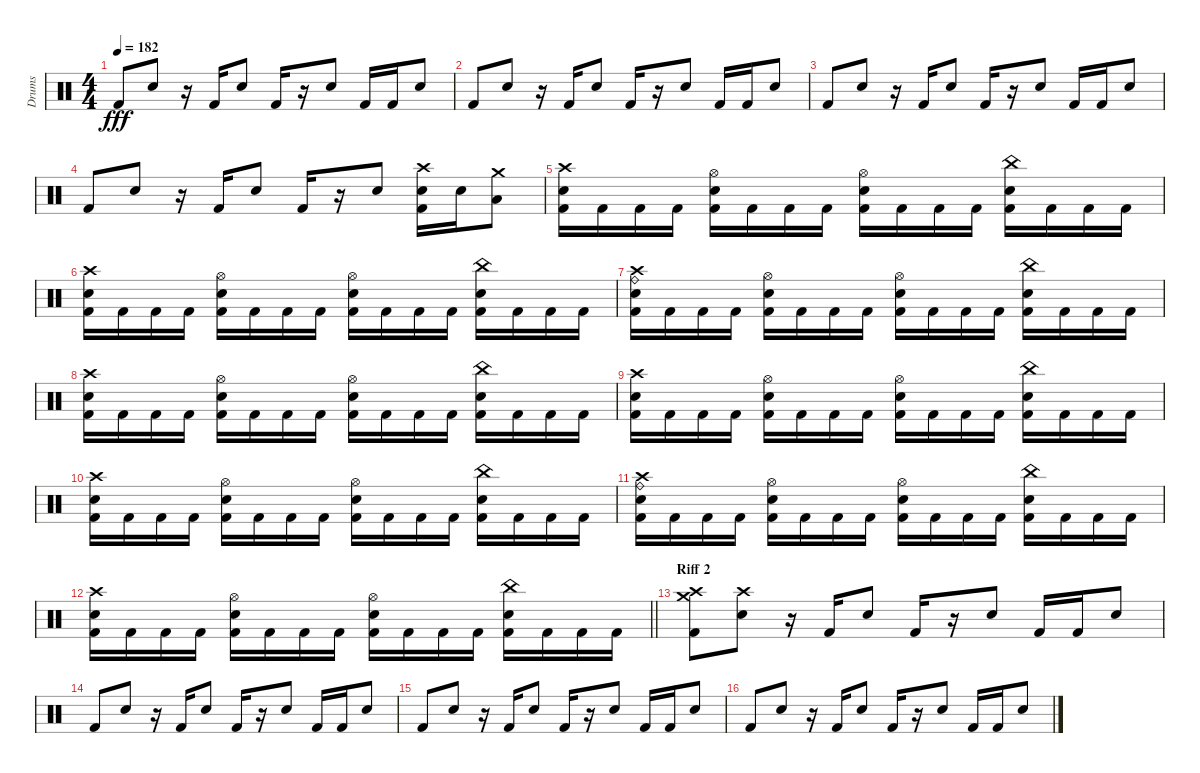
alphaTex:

\track ("Drums" "Drums") {instrument percussion}
\staff {score}
\articulation defaults
\ts (4 4)
\tempo 182
\clef neutral
\ks c "Kick (hit) 2".8{dy fff} "Snare (hit) 2".8
r.16 "Kick (hit) 2".16 "Snare (hit) 2".8 "Kick (hit) 2".16 r.16 "Snare (hit) 2".8 "Kick (hit) 2".16 "Kick (hit) 2".16 "Snare (hit) 2".8 |
"Kick (hit) 2".8 "Snare (hit) 2".8 r.16 "Kick (hit) 2".16 "Snare (hit) 2".8 "Kick (hit) 2".16 r.16 "Snare (hit) 2".8 "Kick (hit) 2".16 "Kick (hit) 2".16 "Snare (hit) 2".8 |
"Kick (hit) 2".8 "Snare (hit) 2".8 r.16 "Kick (hit) 2".16 "Snare (hit) 2".8 "Kick (hit) 2".16 r.16 "Snare (hit) 2".8 "Kick (hit) 2".16 "Kick (hit) 2".16 "Snare (hit) 2".8 |
"Kick (hit) 2".8 "Snare (hit) 2".8 r.16 "Kick (hit) 2".16 "Snare (hit) 2".8 "Kick (hit) 2".16 r.16 "Snare (hit) 2".8 ("Crash high (hit)" "Kick (hit) 2" "Snare (hit) 2").16 "Snare (hit) 2".16 ("Crash medium (hit)" "Low Tom (hit)").8 |
("Crash high (hit)" "Kick (hit) 2" "Snare (hit) 2").16 "Kick (hit) 2".16 "Kick (hit) 2".16 "Kick (hit) 2".16 ("Hi-Hat (open)" "Kick (hit) 2" "Snare (hit) 2").16 "Kick (hit) 2".16 "Kick (hit) 2".16 "Kick (hit) 2".16 ("Hi-Hat (open)" "Kick (hit) 2" "Snare (hit) 2").16 "Kick (hit) 2".16 "Kick (hit) 2".16 "Kick (hit) 2".16 ("China (hit)" "Kick (hit) 2" "Snare (hit) 2").16 "Kick (hit) 2".16 "Kick (hit) 2".16 "Kick (hit) 2".16 |
("Crash high (hit)" "Kick (hit) 2" "Snare (hit) 2").16 "Kick (hit) 2".16 "Kick (hit) 2".16 "Kick (hit) 2".16 ("Hi-Hat (open)" "Kick (hit) 2" "Snare (hit) 2").16 "Kick (hit) 2".16 "Kick (hit) 2".16 "Kick (hit) 2".16 ("Hi-Hat (open)" "Kick (hit) 2" "Snare (hit) 2").16 "Kick (hit) 2".16 "Kick (hit) 2".16 "Kick (hit) 2".16 ("China (hit)" "Kick (hit) 2" "Snare (hit) 2").16 "Kick (hit) 2".16 "Kick (hit) 2".16 "Kick (hit) 2".16 |
("Crash high (hit)" "Kick (hit) 2" "Snare (hit) 2" "Ride (bell)").16 "Kick (hit) 2".16 "Kick (hit) 2".16 "Kick (hit) 2".16 ("Hi-Hat (open)" "Kick (hit) 2" "Snare (hit) 2").16 "Kick (hit) 2".16 "Kick (hit) 2".16 "Kick (hit) 2".16 ("Hi-Hat (open)" "Kick (hit) 2" "Snare (hit) 2").16 "Kick (hit) 2".16 "Kick (hit) 2".16 "Kick (hit) 2".16 ("China (hit)" "Kick (hit) 2" "Snare (hit) 2").16 "Kick (hit) 2".16 "Kick (hit) 2".16 "Kick (hit) 2".16 |
("Crash high (hit)" "Kick (hit) 2" "Snare (hit) 2").16 "Kick (hit) 2".16 "Kick (hit) 2".16 "Kick (hit) 2".16 ("Hi-Hat (open)" "Kick (hit) 2" "Snare (hit) 2").16 "Kick (hit) 2".16 "Kick (hit) 2".16 "Kick (hit) 2".16 ("Hi-Hat (open)" "Kick (hit) 2" "Snare (hit) 2").16 "Kick (hit) 2".16 "Kick (hit) 2".16 "Kick (hit) 2".16 ("China (hit)" "Kick (hit) 2" "Snare (hit) 2").16 "Kick (hit) 2".16 "Kick (hit) 2".16 "Kick (hit) 2".16 |
("Crash high (hit)" "Kick (hit) 2" "Snare (hit) 2").16 "Kick (hit) 2".16 "Kick (hit) 2".16 "Kick (hit) 2".16 ("Hi-Hat (open)" "Kick (hit) 2" "Snare (hit) 2").16 "Kick (hit) 2".16 "Kick (hit) 2".16 "Kick (hit) 2".16 ("Hi-Hat (open)" "Kick (hit) 2" "Snare (hit) 2").16 "Kick (hit) 2".16 "Kick (hit) 2".16 "Kick (hit) 2".16 ("China (hit)" "Kick (hit) 2" "Snare (hit) 2").16 "Kick (hit) 2".16 "Kick (hit) 2".16 "Kick (hit) 2".16 |
("Crash high (hit)" "Kick (hit) 2" "Snare (hit) 2").16 "Kick (hit) 2".16 "Kick (hit) 2".16 "Kick (hit) 2".16 ("Hi-Hat (open)" "Kick (hit) 2" "Snare (hit) 2").16 "Kick (hit) 2".16 "Kick (hit) 2".16 "Kick (hit) 2".16 ("Hi-Hat (open)" "Kick (hit) 2" "Snare (hit) 2").16 "Kick (hit) 2".16 "Kick (hit) 2".16 "Kick (hit) 2".16 ("China (hit)" "Kick (hit) 2" "Snare (hit) 2").16 "Kick (hit) 2".16 "Kick (hit) 2".16 "Kick (hit) 2".16 |
("Crash high (hit)" "Kick (hit) 2" "Snare (hit) 2" "Ride (bell)").16 "Kick (hit) 2".16 "Kick (hit) 2".16 "Kick (hit) 2".16 ("Hi-Hat (open)" "Kick (hit) 2" "Snare (hit) 2").16 "Kick (hit) 2".16 "Kick (hit) 2".16 "Kick (hit) 2".16 ("Hi-Hat (open)" "Kick (hit) 2" "Snare (hit) 2").16 "Kick (hit) 2".16 "Kick (hit) 2".16 "Kick (hit) 2".16 ("China (hit)" "Kick (hit) 2" "Snare (hit) 2").16 "Kick (hit) 2".16 "Kick (hit) 2".16 "Kick (hit) 2".16 |
\barLineRight lightlight
("Crash high (hit)" "Kick (hit) 2" "Snare (hit) 2").16 "Kick (hit) 2".16 "Kick (hit) 2".16 "Kick (hit) 2".16 ("Hi-Hat (open)" "Kick (hit) 2" "Snare (hit) 2").16 "Kick (hit) 2".16 "Kick (hit) 2".16 "Kick (hit) 2".16 ("Hi-Hat (open)" "Kick (hit) 2" "Snare (hit) 2").16 "Kick (hit) 2".16 "Kick (hit) 2".16 "Kick (hit) 2".16 ("China (hit)" "Kick (hit) 2" "Snare (hit) 2").16 "Kick (hit) 2".16 "Kick (hit) 2".16 "Kick (hit) 2".16 |
\section ("" "Riff 2")
("Crash high (hit)" "Crash medium (hit)" "Kick (hit) 2").8 ("Crash high (hit)" "Snare (hit) 2").8 r.16 "Kick (hit) 2".16 "Snare (hit) 2".8 "Kick (hit) 2".16 r.16 "Snare (hit) 2".8 "Kick (hit) 2".16 "Kick (hit) 2".16 "Snare (hit) 2".8 |
"Kick (hit) 2".8 "Snare (hit) 2".8 r.16 "Kick (hit) 2".16 "Snare (hit) 2".8 "Kick (hit) 2".16 r.16 "Snare (hit) 2".8 "Kick (hit) 2".16 "Kick (hit) 2".16 "Snare (hit) 2".8 |
"Kick (hit) 2".8 "Snare (hit) 2".8 r.16 "Kick (hit) 2".16 "Snare (hit) 2".8 "Kick (hit) 2".16 r.16 "Snare (hit) 2".8 "Kick (hit) 2".16 "Kick (hit) 2".16 "Snare (hit) 2".8 |
"Kick (hit) 2".8 "Snare (hit) 2".8 r.16 "Kick (hit) 2".16 "Snare (hit) 2".8 "Kick (hit) 2".16 r.16 "Snare (hit) 2".8 "Kick (hit) 2".16 "Kick (hit) 2".16 "Snare (hit) 2".8
